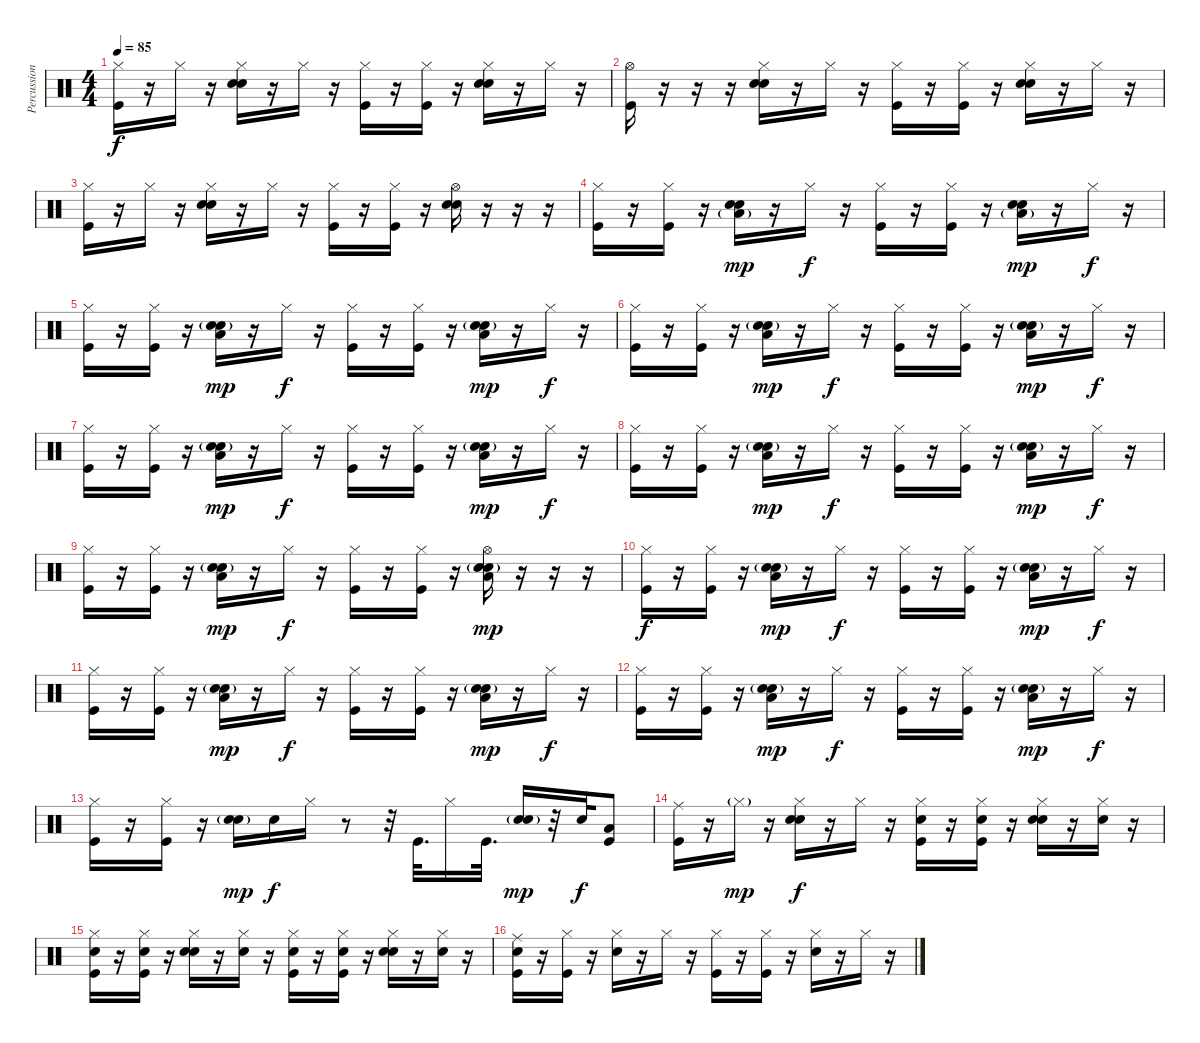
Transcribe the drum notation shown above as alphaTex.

\track ("Percussion" "Percussion") {instrument percussion}
\staff {score}
\articulation defaults
\ts (4 4)
\tempo 85
\clef neutral
\ks c
("Hi-Hat (closed)" "Kick (hit)").16{dy f} r.16 "Hi-Hat (closed)".16 r.16 ("Hi-Hat (closed)" "Hand Clap (hit)" "Snare (hit) 2").16 r.16 "Hi-Hat (closed)".16 r.16 ("Hi-Hat (closed)" "Kick (hit)").16 r.16 ("Hi-Hat (closed)" "Kick (hit)").16 r.16 ("Hi-Hat (closed)" "Hand Clap (hit)" "Snare (hit) 2").16 r.16 "Hi-Hat (closed)".16 r.16 |
("Hi-Hat (open)" "Kick (hit)").16 r.16 r.16 r.16 ("Hi-Hat (closed)" "Hand Clap (hit)" "Snare (hit) 2").16 r.16 "Hi-Hat (closed)".16 r.16 ("Hi-Hat (closed)" "Kick (hit)").16 r.16 ("Hi-Hat (closed)" "Kick (hit)").16 r.16 ("Hi-Hat (closed)" "Hand Clap (hit)" "Snare (hit) 2").16 r.16 "Hi-Hat (closed)".16 r.16 |
("Hi-Hat (closed)" "Kick (hit)").16 r.16 "Hi-Hat (closed)".16 r.16 ("Hi-Hat (closed)" "Hand Clap (hit)" "Snare (hit) 2").16 r.16 "Hi-Hat (closed)".16 r.16 ("Hi-Hat (closed)" "Kick (hit)").16 r.16 ("Hi-Hat (closed)" "Kick (hit)").16 r.16 ("Hi-Hat (open)" "Hand Clap (hit)" "Snare (hit) 2").16 r.16 r.16 r.16 |
("Hi-Hat (closed)" "Kick (hit)").16 r.16 ("Hi-Hat (closed)" "Kick (hit)").16 r.16 ("Low Tom (hit)"{g} "Hand Clap (hit)" "Snare (hit) 2").16{dy mp} r.16 "Hi-Hat (closed)".16{dy f} r.16 ("Hi-Hat (closed)" "Kick (hit)").16 r.16 ("Hi-Hat (closed)" "Kick (hit)").16 r.16 ("Low Tom (hit)"{g} "Hand Clap (hit)" "Snare (hit) 2").16{dy mp} r.16 "Hi-Hat (closed)".16{dy f} r.16 |
("Hi-Hat (closed)" "Kick (hit)").16 r.16 ("Hi-Hat (closed)" "Kick (hit)").16 r.16 ("Low Tom (hit)" "Hand Clap (hit)" "Snare (hit) 2"{g}).16{dy mp} r.16 "Hi-Hat (closed)".16{dy f} r.16 ("Hi-Hat (closed)" "Kick (hit)").16 r.16 ("Hi-Hat (closed)" "Kick (hit)").16 r.16 ("Low Tom (hit)" "Hand Clap (hit)" "Snare (hit) 2"{g}).16{dy mp} r.16 "Hi-Hat (closed)".16{dy f} r.16 |
("Hi-Hat (closed)" "Kick (hit)").16 r.16 ("Hi-Hat (closed)" "Kick (hit)").16 r.16 ("Low Tom (hit)" "Hand Clap (hit)" "Snare (hit) 2"{g}).16{dy mp} r.16 "Hi-Hat (closed)".16{dy f} r.16 ("Hi-Hat (closed)" "Kick (hit)").16 r.16 ("Hi-Hat (closed)" "Kick (hit)").16 r.16 ("Low Tom (hit)" "Hand Clap (hit)" "Snare (hit) 2"{g}).16{dy mp} r.16 "Hi-Hat (closed)".16{dy f} r.16 |
("Hi-Hat (closed)" "Kick (hit)").16 r.16 ("Hi-Hat (closed)" "Kick (hit)").16 r.16 ("Low Tom (hit)" "Hand Clap (hit)" "Snare (hit) 2"{g}).16{dy mp} r.16 "Hi-Hat (closed)".16{dy f} r.16 ("Hi-Hat (closed)" "Kick (hit)").16 r.16 ("Hi-Hat (closed)" "Kick (hit)").16 r.16 ("Low Tom (hit)" "Hand Clap (hit)" "Snare (hit) 2"{g}).16{dy mp} r.16 "Hi-Hat (closed)".16{dy f} r.16 |
("Hi-Hat (closed)" "Kick (hit)").16 r.16 ("Hi-Hat (closed)" "Kick (hit)").16 r.16 ("Low Tom (hit)" "Hand Clap (hit)" "Snare (hit) 2"{g}).16{dy mp} r.16 "Hi-Hat (closed)".16{dy f} r.16 ("Hi-Hat (closed)" "Kick (hit)").16 r.16 ("Hi-Hat (closed)" "Kick (hit)").16 r.16 ("Low Tom (hit)" "Hand Clap (hit)" "Snare (hit) 2"{g}).16{dy mp} r.16 "Hi-Hat (closed)".16{dy f} r.16 |
("Hi-Hat (closed)" "Kick (hit)").16 r.16 ("Hi-Hat (closed)" "Kick (hit)").16 r.16 ("Low Tom (hit)" "Hand Clap (hit)" "Snare (hit) 2"{g}).16{dy mp} r.16 "Hi-Hat (closed)".16{dy f} r.16 ("Hi-Hat (closed)" "Kick (hit)").16 r.16 ("Hi-Hat (closed)" "Kick (hit)").16 r.16 ("Hi-Hat (open)" "Low Tom (hit)" "Hand Clap (hit)" "Snare (hit) 2"{g}).16{dy mp} r.16 r.16 r.16 |
("Hi-Hat (closed)" "Kick (hit)").16{dy f} r.16 ("Hi-Hat (closed)" "Kick (hit)").16 r.16 ("Low Tom (hit)" "Hand Clap (hit)" "Snare (hit) 2"{g}).16{dy mp} r.16 "Hi-Hat (closed)".16{dy f} r.16 ("Hi-Hat (closed)" "Kick (hit)").16 r.16 ("Hi-Hat (closed)" "Kick (hit)").16 r.16 ("Low Tom (hit)" "Hand Clap (hit)" "Snare (hit) 2"{g}).16{dy mp} r.16 "Hi-Hat (closed)".16{dy f} r.16 |
("Hi-Hat (closed)" "Kick (hit)").16 r.16 ("Hi-Hat (closed)" "Kick (hit)").16 r.16 ("Low Tom (hit)" "Hand Clap (hit)" "Snare (hit) 2"{g}).16{dy mp} r.16 "Hi-Hat (closed)".16{dy f} r.16 ("Hi-Hat (closed)" "Kick (hit)").16 r.16 ("Hi-Hat (closed)" "Kick (hit)").16 r.16 ("Low Tom (hit)" "Hand Clap (hit)" "Snare (hit) 2"{g}).16{dy mp} r.16 "Hi-Hat (closed)".16{dy f} r.16 |
("Hi-Hat (closed)" "Kick (hit)").16 r.16 ("Hi-Hat (closed)" "Kick (hit)").16 r.16 ("Low Tom (hit)" "Hand Clap (hit)" "Snare (hit) 2"{g}).16{dy mp} r.16 "Hi-Hat (closed)".16{dy f} r.16 ("Hi-Hat (closed)" "Kick (hit)").16 r.16 ("Hi-Hat (closed)" "Kick (hit)").16 r.16 ("Low Tom (hit)" "Hand Clap (hit)" "Snare (hit) 2"{g}).16{dy mp} r.16 "Hi-Hat (closed)".16{dy f} r.16 |
("Hi-Hat (closed)" "Kick (hit)").16 r.16 ("Hi-Hat (closed)" "Kick (hit)").16 r.16 ("Hand Clap (hit)" "Snare (hit) 2"{g}).16{dy mp} "Snare (hit) 2".16{dy f} "Hi-Hat (closed)".16 r.8 r.32 "Kick (hit)".32{d} "Hi-Hat (closed)".16 "Kick (hit)".32{d} ("Hand Clap (hit)" "Snare (hit) 2"{g}).16{dy mp} r.32 "Snare (hit) 2".32{dy f} ("Low Tom (hit)" "Kick (hit)").8 |
("Ride (middle)" "Kick (hit)").16 r.16 "Hi-Hat (closed)"{g}.16{dy mp} r.16 ("Hi-Hat (closed)" "Hand Clap (hit)" "Snare (hit) 2").16{dy f} r.16 "Hi-Hat (closed)".16 r.16 ("Hi-Hat (closed)" "Hand Clap (hit)" "Kick (hit)").16 r.16 ("Hi-Hat (closed)" "Hand Clap (hit)" "Kick (hit)").16 r.16 ("Hi-Hat (closed)" "Hand Clap (hit)" "Snare (hit) 2").16 r.16 ("Hi-Hat (closed)" "Hand Clap (hit)").16 r.16 |
("Hi-Hat (closed)" "Hand Clap (hit)" "Kick (hit)").16 r.16 ("Hi-Hat (closed)" "Hand Clap (hit)" "Kick (hit)").16 r.16 ("Hi-Hat (closed)" "Hand Clap (hit)" "Snare (hit) 2").16 r.16 ("Hi-Hat (closed)" "Hand Clap (hit)").16 r.16 ("Hi-Hat (closed)" "Hand Clap (hit)" "Kick (hit)").16 r.16 ("Hi-Hat (closed)" "Hand Clap (hit)" "Kick (hit)").16 r.16 ("Hi-Hat (closed)" "Hand Clap (hit)" "Snare (hit) 2").16 r.16 ("Hi-Hat (closed)" "Hand Clap (hit)").16 r.16 |
("Ride (middle)" "Hand Clap (hit)" "Kick (hit)").16 r.16 ("Hi-Hat (closed)" "Kick (hit)").16 r.16 ("Hi-Hat (closed)" "Snare (hit) 2").16 r.16 "Hi-Hat (closed)".16 r.16 ("Hi-Hat (closed)" "Kick (hit)").16 r.16 ("Hi-Hat (closed)" "Kick (hit)").16 r.16 ("Hi-Hat (closed)" "Snare (hit) 2").16 r.16 "Hi-Hat (closed)".16 r.16
